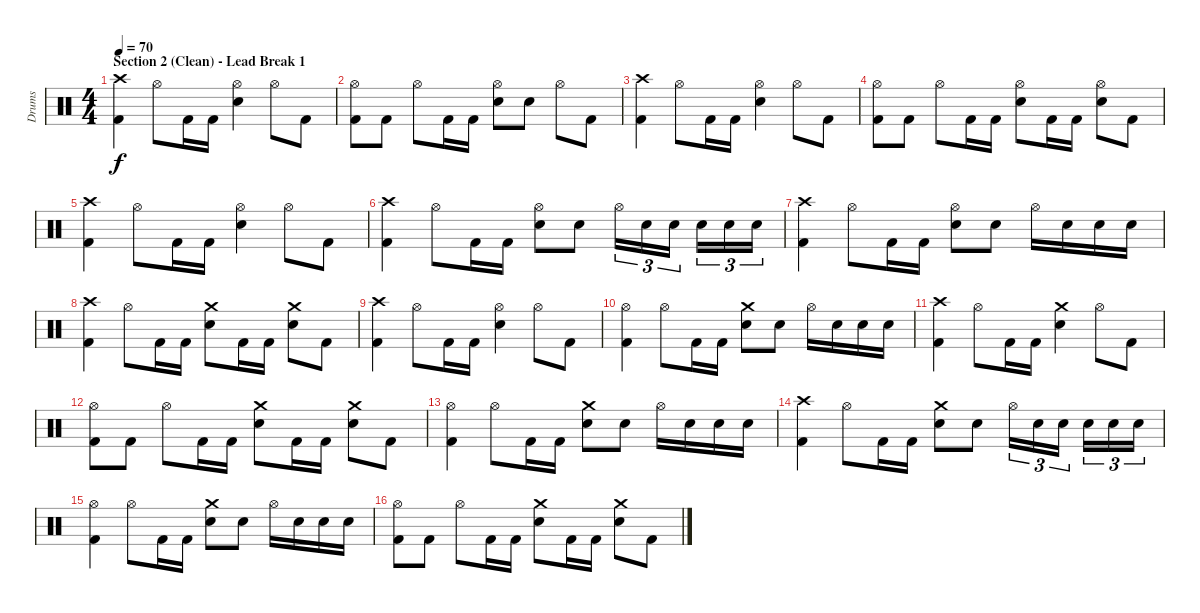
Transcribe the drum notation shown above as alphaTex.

\track ("Drums" "Drums") {instrument percussion}
\staff {score}
\articulation defaults
\ts (4 4)
\section ("" "Section 2 (Clean) - Lead Break 1")
\tempo 70
\clef neutral
\ks c
("Crash high (hit)" "Kick (hit) 2").4{dy f} "Hi-Hat (open)".8 "Kick (hit) 2".16 "Kick (hit) 2".16 ("Hi-Hat (open)" "Electric Snare (hit)").4 "Hi-Hat (open)".8 "Kick (hit) 2".8 |
("Hi-Hat (open)" "Kick (hit) 2").8 "Kick (hit) 2".8 "Hi-Hat (open)".8 "Kick (hit) 2".16 "Kick (hit) 2".16 ("Hi-Hat (open)" "Electric Snare (hit)").8 "Electric Snare (hit)".8 "Hi-Hat (open)".8 "Kick (hit) 2".8 |
("Crash high (hit)" "Kick (hit) 2").4 "Hi-Hat (open)".8 "Kick (hit) 2".16 "Kick (hit) 2".16 ("Hi-Hat (open)" "Electric Snare (hit)").4 "Hi-Hat (open)".8 "Kick (hit) 2".8 |
("Hi-Hat (open)" "Kick (hit) 2").8 "Kick (hit) 2".8 "Hi-Hat (open)".8 "Kick (hit) 2".16 "Kick (hit) 2".16 ("Hi-Hat (open)" "Electric Snare (hit)").8 "Kick (hit) 2".16 "Kick (hit) 2".16 ("Hi-Hat (open)" "Electric Snare (hit)").8 "Kick (hit) 2".8 |
("Crash high (hit)" "Kick (hit) 2").4 "Hi-Hat (open)".8 "Kick (hit) 2".16 "Kick (hit) 2".16 ("Hi-Hat (open)" "Electric Snare (hit)").4 "Hi-Hat (open)".8 "Kick (hit) 2".8 |
("Crash high (hit)" "Kick (hit) 2").4 "Hi-Hat (open)".8 "Kick (hit) 2".16 "Kick (hit) 2".16 ("Hi-Hat (open)" "Electric Snare (hit)").8 "Electric Snare (hit)".8 "Hi-Hat (open)".16{tu (3 2)} "Electric Snare (hit)".16{tu (3 2)} "Electric Snare (hit)".16{tu (3 2) beam splitsecondary} "Electric Snare (hit)".16{tu (3 2)} "Electric Snare (hit)".16{tu (3 2)} "Electric Snare (hit)".16{tu (3 2)} |
("Crash high (hit)" "Kick (hit) 2").4 "Hi-Hat (open)".8 "Kick (hit) 2".16 "Kick (hit) 2".16 ("Hi-Hat (open)" "Electric Snare (hit)").8 "Electric Snare (hit)".8 "Hi-Hat (open)".16 "Electric Snare (hit)".16 "Electric Snare (hit)".16 "Electric Snare (hit)".16 |
("Crash high (hit)" "Kick (hit) 2").4 "Hi-Hat (open)".8 "Kick (hit) 2".16 "Kick (hit) 2".16 ("Crash medium (hit)" "Electric Snare (hit)").8 "Kick (hit) 2".16 "Kick (hit) 2".16 ("Crash medium (hit)" "Electric Snare (hit)").8 "Kick (hit) 2".8 |
("Crash high (hit)" "Kick (hit) 2").4 "Hi-Hat (open)".8 "Kick (hit) 2".16 "Kick (hit) 2".16 ("Hi-Hat (open)" "Electric Snare (hit)").4 "Hi-Hat (open)".8 "Kick (hit) 2".8 |
("Hi-Hat (open)" "Kick (hit) 2").4 "Hi-Hat (open)".8 "Kick (hit) 2".16 "Kick (hit) 2".16 ("Crash medium (hit)" "Electric Snare (hit)").8 "Electric Snare (hit)".8 "Hi-Hat (open)".16 "Electric Snare (hit)".16 "Electric Snare (hit)".16 "Electric Snare (hit)".16 |
("Crash high (hit)" "Kick (hit) 2").4 "Hi-Hat (open)".8 "Kick (hit) 2".16 "Kick (hit) 2".16 ("Crash medium (hit)" "Electric Snare (hit)").4 "Hi-Hat (open)".8 "Kick (hit) 2".8 |
("Hi-Hat (open)" "Kick (hit) 2").8 "Kick (hit) 2".8 "Hi-Hat (open)".8 "Kick (hit) 2".16 "Kick (hit) 2".16 ("Crash medium (hit)" "Electric Snare (hit)").8 "Kick (hit) 2".16 "Kick (hit) 2".16 ("Crash medium (hit)" "Electric Snare (hit)").8 "Kick (hit) 2".8 |
("Hi-Hat (open)" "Kick (hit) 2").4 "Hi-Hat (open)".8 "Kick (hit) 2".16 "Kick (hit) 2".16 ("Crash medium (hit)" "Electric Snare (hit)").8 "Electric Snare (hit)".8 "Hi-Hat (open)".16 "Electric Snare (hit)".16 "Electric Snare (hit)".16 "Electric Snare (hit)".16 |
("Crash high (hit)" "Kick (hit) 2").4 "Hi-Hat (open)".8 "Kick (hit) 2".16 "Kick (hit) 2".16 ("Crash medium (hit)" "Electric Snare (hit)").8 "Electric Snare (hit)".8 "Hi-Hat (open)".16{tu (3 2)} "Electric Snare (hit)".16{tu (3 2)} "Electric Snare (hit)".16{tu (3 2) beam splitsecondary} "Electric Snare (hit)".16{tu (3 2)} "Electric Snare (hit)".16{tu (3 2)} "Electric Snare (hit)".16{tu (3 2)} |
("Hi-Hat (open)" "Kick (hit) 2").4 "Hi-Hat (open)".8 "Kick (hit) 2".16 "Kick (hit) 2".16 ("Crash medium (hit)" "Electric Snare (hit)").8 "Electric Snare (hit)".8 "Hi-Hat (open)".16 "Electric Snare (hit)".16 "Electric Snare (hit)".16 "Electric Snare (hit)".16 |
("Hi-Hat (open)" "Kick (hit) 2").8 "Kick (hit) 2".8 "Hi-Hat (open)".8 "Kick (hit) 2".16 "Kick (hit) 2".16 ("Crash medium (hit)" "Electric Snare (hit)").8 "Kick (hit) 2".16 "Kick (hit) 2".16 ("Crash medium (hit)" "Electric Snare (hit)").8 "Kick (hit) 2".8
